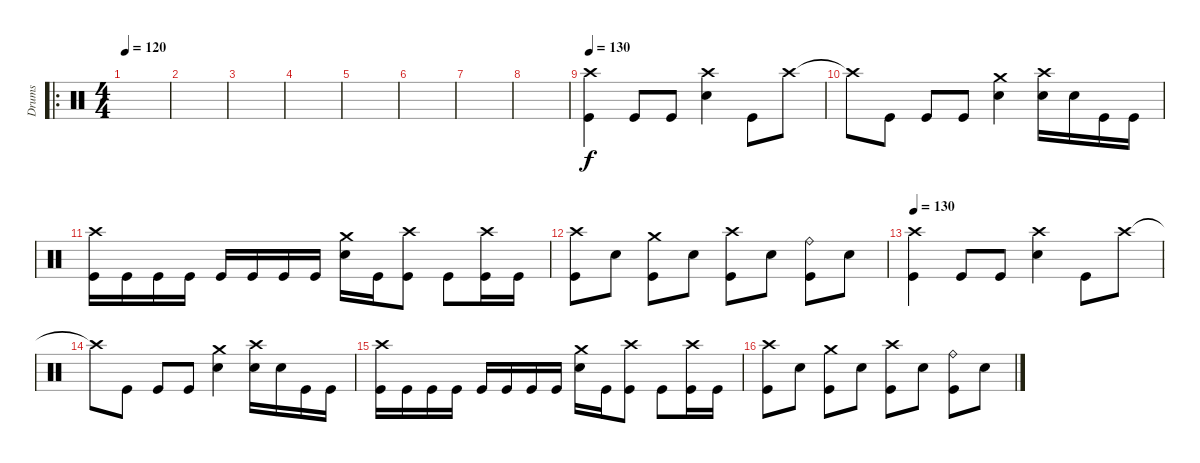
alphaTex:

\track ("Drums" "Drums") {solo instrument percussion}
\staff {score}
\articulation defaults
\ro
\ts (4 4)
\tempo 120
\clef neutral
\ks c
|
|
|
|
|
|
|
|
\tempo 140
\tempo 130
("Crash high (hit)" "Kick (hit)").4 "Kick (hit)".8 "Kick (hit)".8 ("Crash high (hit)" "Electric Snare (hit)").4 "Kick (hit)".8 "Crash high (hit)".8 |
"Crash high (hit)"{t}.8 "Kick (hit)".8 "Kick (hit)".8 "Kick (hit)".8 ("Crash medium (hit)" "Electric Snare (hit)").4 ("Crash high (hit)" "Electric Snare (hit)").16 "Electric Snare (hit)".16 "Kick (hit)".16 "Kick (hit)".16 |
("Crash high (hit)" "Kick (hit)").16 "Kick (hit)".16 "Kick (hit)".16 "Kick (hit)".16 "Kick (hit)".16 "Kick (hit)".16 "Kick (hit)".16 "Kick (hit)".16 ("Crash medium (hit)" "Electric Snare (hit)").16 "Kick (hit)".16 ("Crash high (hit)" "Kick (hit)").8 "Kick (hit)".8 ("Crash high (hit)" "Kick (hit)").16 "Kick (hit)".16 |
("Crash high (hit)" "Kick (hit)").8 "Electric Snare (hit)".8 ("Crash medium (hit)" "Kick (hit)").8 "Electric Snare (hit)".8 ("Crash high (hit)" "Kick (hit)").8 "Electric Snare (hit)".8 ("Ride (bell)" "Kick (hit)").8 "Electric Snare (hit)".8 |
\tempo 140
\tempo 130
("Crash high (hit)" "Kick (hit)").4 "Kick (hit)".8 "Kick (hit)".8 ("Crash high (hit)" "Electric Snare (hit)").4 "Kick (hit)".8 "Crash high (hit)".8 |
"Crash high (hit)"{t}.8 "Kick (hit)".8 "Kick (hit)".8 "Kick (hit)".8 ("Crash medium (hit)" "Electric Snare (hit)").4 ("Crash high (hit)" "Electric Snare (hit)").16 "Electric Snare (hit)".16 "Kick (hit)".16 "Kick (hit)".16 |
("Crash high (hit)" "Kick (hit)").16 "Kick (hit)".16 "Kick (hit)".16 "Kick (hit)".16 "Kick (hit)".16 "Kick (hit)".16 "Kick (hit)".16 "Kick (hit)".16 ("Crash medium (hit)" "Electric Snare (hit)").16 "Kick (hit)".16 ("Crash high (hit)" "Kick (hit)").8 "Kick (hit)".8 ("Crash high (hit)" "Kick (hit)").16 "Kick (hit)".16 |
("Crash high (hit)" "Kick (hit)").8 "Electric Snare (hit)".8 ("Crash medium (hit)" "Kick (hit)").8 "Electric Snare (hit)".8 ("Crash high (hit)" "Kick (hit)").8 "Electric Snare (hit)".8 ("Ride (bell)" "Kick (hit)").8 "Electric Snare (hit)".8
